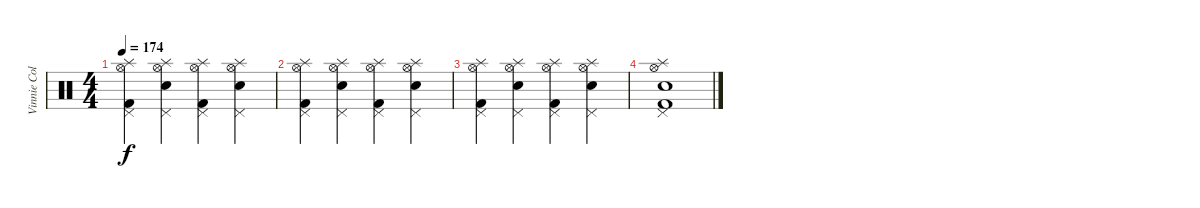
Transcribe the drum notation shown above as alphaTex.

\track ("Vinnie Colaiuta" "Vinnie Col") {instrument percussion}
\staff {score}
\articulation defaults
\ts (4 4)
\tempo 174
\clef neutral
\ks c
("Splash (hit)" "Kick (hit) 2" "Pedal Hi-Hat (hit)" "Hi-Hat (open)").4{dy f} ("Splash (hit)" "Snare (hit) 2" "Pedal Hi-Hat (hit)" "Hi-Hat (open)").4 ("Splash (hit)" "Kick (hit) 2" "Pedal Hi-Hat (hit)" "Hi-Hat (open)").4 ("Splash (hit)" "Snare (hit) 2" "Pedal Hi-Hat (hit)" "Hi-Hat (open)").4 |
("Splash (hit)" "Kick (hit) 2" "Pedal Hi-Hat (hit)" "Hi-Hat (open)").4 ("Splash (hit)" "Snare (hit) 2" "Pedal Hi-Hat (hit)" "Hi-Hat (open)").4 ("Splash (hit)" "Kick (hit) 2" "Pedal Hi-Hat (hit)" "Hi-Hat (open)").4 ("Splash (hit)" "Snare (hit) 2" "Pedal Hi-Hat (hit)" "Hi-Hat (open)").4 |
("Splash (hit)" "Kick (hit) 2" "Pedal Hi-Hat (hit)" "Hi-Hat (open)").4 ("Splash (hit)" "Snare (hit) 2" "Pedal Hi-Hat (hit)" "Hi-Hat (open)").4 ("Splash (hit)" "Kick (hit) 2" "Pedal Hi-Hat (hit)" "Hi-Hat (open)").4 ("Splash (hit)" "Snare (hit) 2" "Pedal Hi-Hat (hit)" "Hi-Hat (open)").4 |
("Splash (hit)" "Kick (hit) 2" "Snare (hit) 2" "Pedal Hi-Hat (hit)" "Hi-Hat (open)").1
